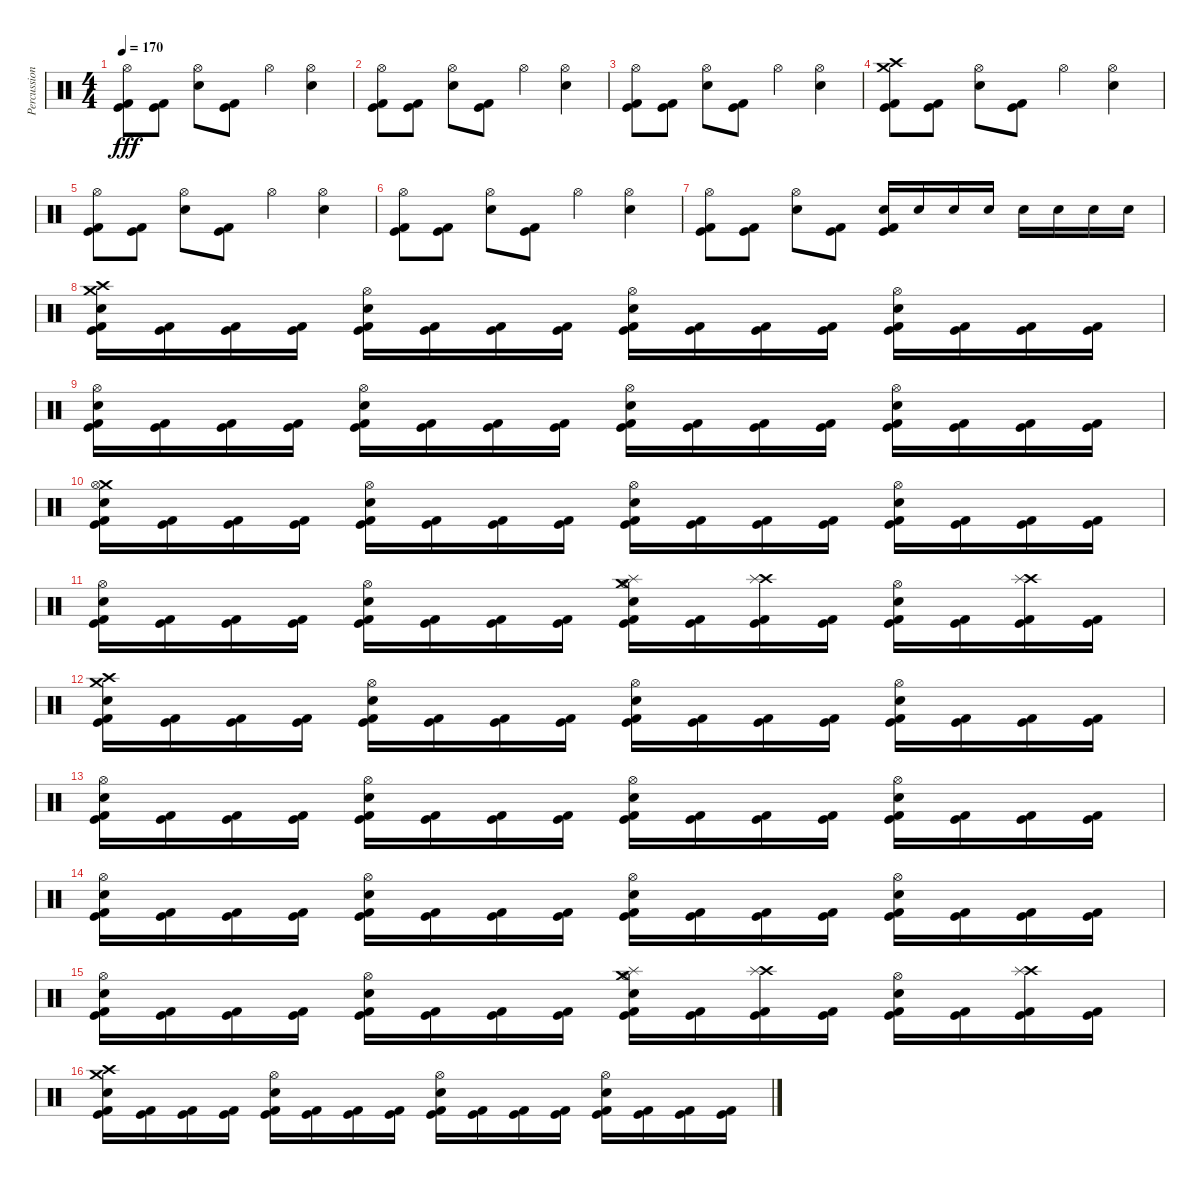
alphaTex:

\track ("Percussions" "Percussion") {instrument percussion}
\staff {score}
\articulation defaults
\ts (4 4)
\tempo 170
\clef neutral
\ks c
("Hi-Hat (open)" "Kick (hit)" "Kick (hit) 2").8{dy fff} ("Kick (hit)" "Kick (hit) 2").8 ("Hi-Hat (open)" "Electric Snare (hit)").8 ("Kick (hit)" "Kick (hit) 2").8 "Hi-Hat (open)".4 ("Hi-Hat (open)" "Electric Snare (hit)").4 |
("Hi-Hat (open)" "Kick (hit)" "Kick (hit) 2").8 ("Kick (hit)" "Kick (hit) 2").8 ("Hi-Hat (open)" "Electric Snare (hit)").8 ("Kick (hit)" "Kick (hit) 2").8 "Hi-Hat (open)".4 ("Hi-Hat (open)" "Electric Snare (hit)").4 |
("Hi-Hat (open)" "Kick (hit)" "Kick (hit) 2").8 ("Kick (hit)" "Kick (hit) 2").8 ("Hi-Hat (open)" "Electric Snare (hit)").8 ("Kick (hit)" "Kick (hit) 2").8 "Hi-Hat (open)".4 ("Hi-Hat (open)" "Electric Snare (hit)").4 |
("Crash high (hit)" "Crash medium (hit)" "Kick (hit)" "Kick (hit) 2").8 ("Kick (hit)" "Kick (hit) 2").8 ("Hi-Hat (open)" "Electric Snare (hit)").8 ("Kick (hit)" "Kick (hit) 2").8 "Hi-Hat (open)".4 ("Hi-Hat (open)" "Electric Snare (hit)").4 |
("Hi-Hat (open)" "Kick (hit)" "Kick (hit) 2").8 ("Kick (hit)" "Kick (hit) 2").8 ("Hi-Hat (open)" "Electric Snare (hit)").8 ("Kick (hit)" "Kick (hit) 2").8 "Hi-Hat (open)".4 ("Hi-Hat (open)" "Electric Snare (hit)").4 |
("Hi-Hat (open)" "Kick (hit)" "Kick (hit) 2").8 ("Kick (hit)" "Kick (hit) 2").8 ("Hi-Hat (open)" "Electric Snare (hit)").8 ("Kick (hit)" "Kick (hit) 2").8 "Hi-Hat (open)".4 ("Hi-Hat (open)" "Electric Snare (hit)").4 |
("Hi-Hat (open)" "Kick (hit)" "Kick (hit) 2").8 ("Kick (hit)" "Kick (hit) 2").8 ("Hi-Hat (open)" "Electric Snare (hit)").8 ("Kick (hit)" "Kick (hit) 2").8 ("Electric Snare (hit)" "Kick (hit)" "Kick (hit) 2").16 "Electric Snare (hit)".16 "Electric Snare (hit)".16 "Electric Snare (hit)".16 "Electric Snare (hit)".16 "Electric Snare (hit)".16 "Electric Snare (hit)".16 "Electric Snare (hit)".16 |
("Crash high (hit)" "Crash medium (hit)" "Electric Snare (hit)" "Kick (hit)" "Kick (hit) 2").16 ("Kick (hit)" "Kick (hit) 2").16 ("Kick (hit)" "Kick (hit) 2").16 ("Kick (hit)" "Kick (hit) 2").16 ("Hi-Hat (open)" "Electric Snare (hit)" "Kick (hit)" "Kick (hit) 2").16 ("Kick (hit)" "Kick (hit) 2").16 ("Kick (hit)" "Kick (hit) 2").16 ("Kick (hit)" "Kick (hit) 2").16 ("Hi-Hat (open)" "Electric Snare (hit)" "Kick (hit)" "Kick (hit) 2").16 ("Kick (hit)" "Kick (hit) 2").16 ("Kick (hit)" "Kick (hit) 2").16 ("Kick (hit)" "Kick (hit) 2").16 ("Hi-Hat (open)" "Electric Snare (hit)" "Kick (hit)" "Kick (hit) 2").16 ("Kick (hit)" "Kick (hit) 2").16 ("Kick (hit)" "Kick (hit) 2").16 ("Kick (hit)" "Kick (hit) 2").16 |
("Hi-Hat (open)" "Electric Snare (hit)" "Kick (hit)" "Kick (hit) 2").16 ("Kick (hit)" "Kick (hit) 2").16 ("Kick (hit)" "Kick (hit) 2").16 ("Kick (hit)" "Kick (hit) 2").16 ("Hi-Hat (open)" "Electric Snare (hit)" "Kick (hit)" "Kick (hit) 2").16 ("Kick (hit)" "Kick (hit) 2").16 ("Kick (hit)" "Kick (hit) 2").16 ("Kick (hit)" "Kick (hit) 2").16 ("Hi-Hat (open)" "Electric Snare (hit)" "Kick (hit)" "Kick (hit) 2").16 ("Kick (hit)" "Kick (hit) 2").16 ("Kick (hit)" "Kick (hit) 2").16 ("Kick (hit)" "Kick (hit) 2").16 ("Hi-Hat (open)" "Electric Snare (hit)" "Kick (hit)" "Kick (hit) 2").16 ("Kick (hit)" "Kick (hit) 2").16 ("Kick (hit)" "Kick (hit) 2").16 ("Kick (hit)" "Kick (hit) 2").16 |
("Crash medium (hit)" "Hi-Hat (open)" "Electric Snare (hit)" "Kick (hit)" "Kick (hit) 2").16 ("Kick (hit)" "Kick (hit) 2").16 ("Kick (hit)" "Kick (hit) 2").16 ("Kick (hit)" "Kick (hit) 2").16 ("Hi-Hat (open)" "Electric Snare (hit)" "Kick (hit)" "Kick (hit) 2").16 ("Kick (hit)" "Kick (hit) 2").16 ("Kick (hit)" "Kick (hit) 2").16 ("Kick (hit)" "Kick (hit) 2").16 ("Hi-Hat (open)" "Electric Snare (hit)" "Kick (hit)" "Kick (hit) 2").16 ("Kick (hit)" "Kick (hit) 2").16 ("Kick (hit)" "Kick (hit) 2").16 ("Kick (hit)" "Kick (hit) 2").16 ("Hi-Hat (open)" "Electric Snare (hit)" "Kick (hit)" "Kick (hit) 2").16 ("Kick (hit)" "Kick (hit) 2").16 ("Kick (hit)" "Kick (hit) 2").16 ("Kick (hit)" "Kick (hit) 2").16 |
("Hi-Hat (open)" "Electric Snare (hit)" "Kick (hit)" "Kick (hit) 2").16 ("Kick (hit)" "Kick (hit) 2").16 ("Kick (hit)" "Kick (hit) 2").16 ("Kick (hit)" "Kick (hit) 2").16 ("Hi-Hat (open)" "Electric Snare (hit)" "Kick (hit)" "Kick (hit) 2").16 ("Kick (hit)" "Kick (hit) 2").16 ("Kick (hit)" "Kick (hit) 2").16 ("Kick (hit)" "Kick (hit) 2").16 ("Crash medium (hit)" "Hi-Hat (open)" "Splash (hit)" "Electric Snare (hit)" "Kick (hit)" "Kick (hit) 2").16 ("Kick (hit)" "Kick (hit) 2").16 ("Crash high (hit)" "Splash (hit)" "Kick (hit)" "Kick (hit) 2").16 ("Kick (hit)" "Kick (hit) 2").16 ("Hi-Hat (open)" "Electric Snare (hit)" "Kick (hit)" "Kick (hit) 2").16 ("Kick (hit)" "Kick (hit) 2").16 ("Crash high (hit)" "Splash (hit)" "Kick (hit)" "Kick (hit) 2").16 ("Kick (hit)" "Kick (hit) 2").16 |
("Crash high (hit)" "Crash medium (hit)" "Electric Snare (hit)" "Kick (hit)" "Kick (hit) 2").16 ("Kick (hit)" "Kick (hit) 2").16 ("Kick (hit)" "Kick (hit) 2").16 ("Kick (hit)" "Kick (hit) 2").16 ("Hi-Hat (open)" "Electric Snare (hit)" "Kick (hit)" "Kick (hit) 2").16 ("Kick (hit)" "Kick (hit) 2").16 ("Kick (hit)" "Kick (hit) 2").16 ("Kick (hit)" "Kick (hit) 2").16 ("Hi-Hat (open)" "Electric Snare (hit)" "Kick (hit)" "Kick (hit) 2").16 ("Kick (hit)" "Kick (hit) 2").16 ("Kick (hit)" "Kick (hit) 2").16 ("Kick (hit)" "Kick (hit) 2").16 ("Hi-Hat (open)" "Electric Snare (hit)" "Kick (hit)" "Kick (hit) 2").16 ("Kick (hit)" "Kick (hit) 2").16 ("Kick (hit)" "Kick (hit) 2").16 ("Kick (hit)" "Kick (hit) 2").16 |
("Hi-Hat (open)" "Electric Snare (hit)" "Kick (hit)" "Kick (hit) 2").16 ("Kick (hit)" "Kick (hit) 2").16 ("Kick (hit)" "Kick (hit) 2").16 ("Kick (hit)" "Kick (hit) 2").16 ("Hi-Hat (open)" "Electric Snare (hit)" "Kick (hit)" "Kick (hit) 2").16 ("Kick (hit)" "Kick (hit) 2").16 ("Kick (hit)" "Kick (hit) 2").16 ("Kick (hit)" "Kick (hit) 2").16 ("Hi-Hat (open)" "Electric Snare (hit)" "Kick (hit)" "Kick (hit) 2").16 ("Kick (hit)" "Kick (hit) 2").16 ("Kick (hit)" "Kick (hit) 2").16 ("Kick (hit)" "Kick (hit) 2").16 ("Hi-Hat (open)" "Electric Snare (hit)" "Kick (hit)" "Kick (hit) 2").16 ("Kick (hit)" "Kick (hit) 2").16 ("Kick (hit)" "Kick (hit) 2").16 ("Kick (hit)" "Kick (hit) 2").16 |
("Hi-Hat (open)" "Electric Snare (hit)" "Kick (hit)" "Kick (hit) 2").16 ("Kick (hit)" "Kick (hit) 2").16 ("Kick (hit)" "Kick (hit) 2").16 ("Kick (hit)" "Kick (hit) 2").16 ("Hi-Hat (open)" "Electric Snare (hit)" "Kick (hit)" "Kick (hit) 2").16 ("Kick (hit)" "Kick (hit) 2").16 ("Kick (hit)" "Kick (hit) 2").16 ("Kick (hit)" "Kick (hit) 2").16 ("Hi-Hat (open)" "Electric Snare (hit)" "Kick (hit)" "Kick (hit) 2").16 ("Kick (hit)" "Kick (hit) 2").16 ("Kick (hit)" "Kick (hit) 2").16 ("Kick (hit)" "Kick (hit) 2").16 ("Hi-Hat (open)" "Electric Snare (hit)" "Kick (hit)" "Kick (hit) 2").16 ("Kick (hit)" "Kick (hit) 2").16 ("Kick (hit)" "Kick (hit) 2").16 ("Kick (hit)" "Kick (hit) 2").16 |
("Hi-Hat (open)" "Electric Snare (hit)" "Kick (hit)" "Kick (hit) 2").16 ("Kick (hit)" "Kick (hit) 2").16 ("Kick (hit)" "Kick (hit) 2").16 ("Kick (hit)" "Kick (hit) 2").16 ("Hi-Hat (open)" "Electric Snare (hit)" "Kick (hit)" "Kick (hit) 2").16 ("Kick (hit)" "Kick (hit) 2").16 ("Kick (hit)" "Kick (hit) 2").16 ("Kick (hit)" "Kick (hit) 2").16 ("Crash medium (hit)" "Hi-Hat (open)" "Splash (hit)" "Electric Snare (hit)" "Kick (hit)" "Kick (hit) 2").16 ("Kick (hit)" "Kick (hit) 2").16 ("Crash high (hit)" "Splash (hit)" "Kick (hit)" "Kick (hit) 2").16 ("Kick (hit)" "Kick (hit) 2").16 ("Hi-Hat (open)" "Electric Snare (hit)" "Kick (hit)" "Kick (hit) 2").16 ("Kick (hit)" "Kick (hit) 2").16 ("Crash high (hit)" "Splash (hit)" "Kick (hit)" "Kick (hit) 2").16 ("Kick (hit)" "Kick (hit) 2").16 |
("Crash high (hit)" "Crash medium (hit)" "Electric Snare (hit)" "Kick (hit)" "Kick (hit) 2").16 ("Kick (hit)" "Kick (hit) 2").16 ("Kick (hit)" "Kick (hit) 2").16 ("Kick (hit)" "Kick (hit) 2").16 ("Hi-Hat (open)" "Electric Snare (hit)" "Kick (hit)" "Kick (hit) 2").16 ("Kick (hit)" "Kick (hit) 2").16 ("Kick (hit)" "Kick (hit) 2").16 ("Kick (hit)" "Kick (hit) 2").16 ("Hi-Hat (open)" "Electric Snare (hit)" "Kick (hit)" "Kick (hit) 2").16 ("Kick (hit)" "Kick (hit) 2").16 ("Kick (hit)" "Kick (hit) 2").16 ("Kick (hit)" "Kick (hit) 2").16 ("Hi-Hat (open)" "Electric Snare (hit)" "Kick (hit)" "Kick (hit) 2").16 ("Kick (hit)" "Kick (hit) 2").16 ("Kick (hit)" "Kick (hit) 2").16 ("Kick (hit)" "Kick (hit) 2").16
